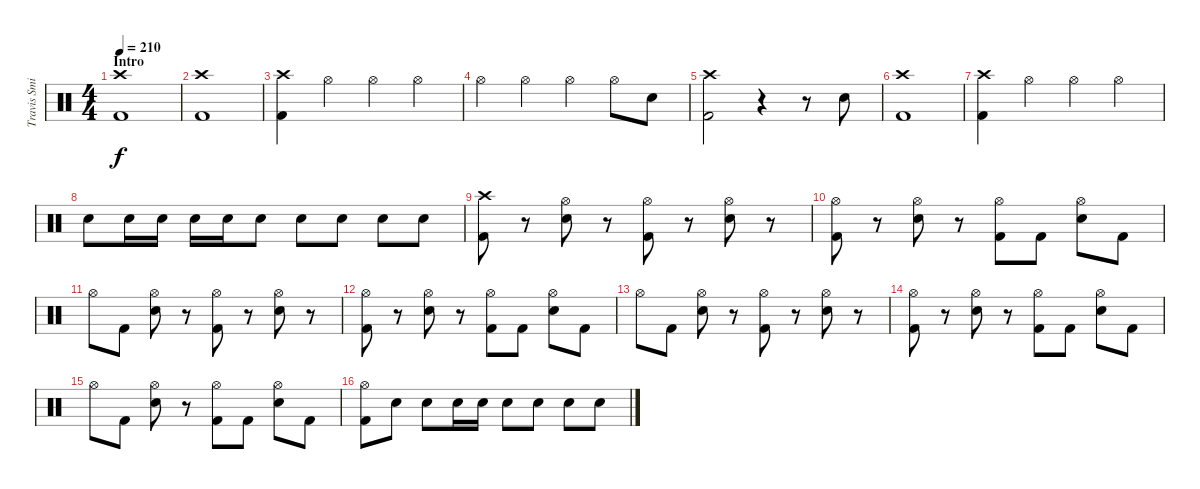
\track ("Travis Smith" "Travis Smi") {instrument percussion}
\staff {score}
\articulation defaults
\ts (4 4)
\section ("" "Intro")
\tempo 210
\clef neutral
\ks c
("Crash high (hit)" "Kick (hit) 2").1{dy f} |
("Crash high (hit)" "Kick (hit) 2").1 |
("Crash high (hit)" "Kick (hit) 2").4 "Hi-Hat (open)".4 "Hi-Hat (open)".4 "Hi-Hat (open)".4 |
"Hi-Hat (open)".4 "Hi-Hat (open)".4 "Hi-Hat (open)".4 "Hi-Hat (open)".8 "Electric Snare (hit)".8 |
("Crash high (hit)" "Kick (hit) 2").2 r.4 r.8 "Electric Snare (hit)".8 |
("Crash high (hit)" "Kick (hit) 2").1 |
("Crash high (hit)" "Kick (hit) 2").4 "Hi-Hat (open)".4 "Hi-Hat (open)".4 "Hi-Hat (open)".4 |
"Electric Snare (hit)".8 "Electric Snare (hit)".16 "Electric Snare (hit)".16 "Electric Snare (hit)".16 "Electric Snare (hit)".16 "Electric Snare (hit)".8 "Electric Snare (hit)".8 "Electric Snare (hit)".8 "Electric Snare (hit)".8 "Electric Snare (hit)".8 |
("Crash high (hit)" "Kick (hit) 2").8 r.8 ("Hi-Hat (open)" "Electric Snare (hit)").8 r.8 ("Hi-Hat (open)" "Kick (hit) 2").8 r.8 ("Hi-Hat (open)" "Electric Snare (hit)").8 r.8 |
("Hi-Hat (open)" "Kick (hit) 2").8 r.8 ("Hi-Hat (open)" "Electric Snare (hit)").8 r.8 ("Hi-Hat (open)" "Kick (hit) 2").8 "Kick (hit) 2".8 ("Hi-Hat (open)" "Electric Snare (hit)").8 "Kick (hit) 2".8 |
"Hi-Hat (open)".8 "Kick (hit) 2".8 ("Hi-Hat (open)" "Electric Snare (hit)").8 r.8 ("Hi-Hat (open)" "Kick (hit) 2").8 r.8 ("Hi-Hat (open)" "Electric Snare (hit)").8 r.8 |
("Hi-Hat (open)" "Kick (hit) 2").8 r.8 ("Hi-Hat (open)" "Electric Snare (hit)").8 r.8 ("Hi-Hat (open)" "Kick (hit) 2").8 "Kick (hit) 2".8 ("Hi-Hat (open)" "Electric Snare (hit)").8 "Kick (hit) 2".8 |
"Hi-Hat (open)".8 "Kick (hit) 2".8 ("Hi-Hat (open)" "Electric Snare (hit)").8 r.8 ("Hi-Hat (open)" "Kick (hit) 2").8 r.8 ("Hi-Hat (open)" "Electric Snare (hit)").8 r.8 |
("Hi-Hat (open)" "Kick (hit) 2").8 r.8 ("Hi-Hat (open)" "Electric Snare (hit)").8 r.8 ("Hi-Hat (open)" "Kick (hit) 2").8 "Kick (hit) 2".8 ("Hi-Hat (open)" "Electric Snare (hit)").8 "Kick (hit) 2".8 |
"Hi-Hat (open)".8 "Kick (hit) 2".8 ("Hi-Hat (open)" "Electric Snare (hit)").8 r.8 ("Hi-Hat (open)" "Kick (hit) 2").8 "Kick (hit) 2".8 ("Hi-Hat (open)" "Electric Snare (hit)").8 "Kick (hit) 2".8 |
("Hi-Hat (open)" "Kick (hit) 2").8 "Electric Snare (hit)".8 "Electric Snare (hit)".8 "Electric Snare (hit)".16 "Electric Snare (hit)".16 "Electric Snare (hit)".8 "Electric Snare (hit)".8 "Electric Snare (hit)".8 "Electric Snare (hit)".8
